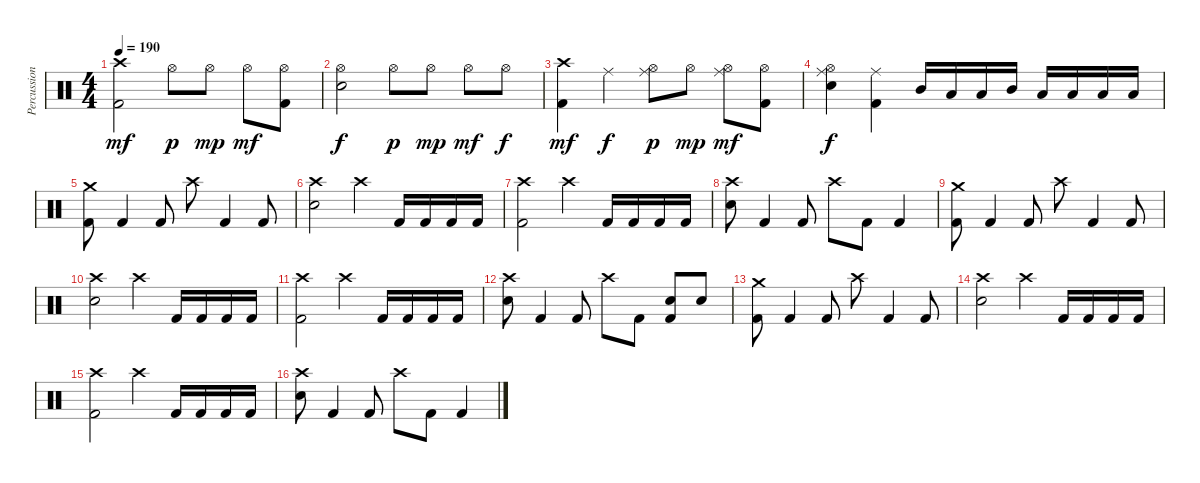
\track ("Percussions" "Percussion") {instrument percussion}
\staff {score}
\articulation defaults
\ts (4 4)
\tempo 190
\clef neutral
\ks c
("Crash high (hit)" "Kick (hit) 2").2{dy mf} "Hi-Hat (open)".8{dy p} "Hi-Hat (open)".8{dy mp} "Hi-Hat (open)".8{dy mf} ("Hi-Hat (open)" "Kick (hit) 2").8 |
("Hi-Hat (open)" "Electric Snare (hit)").2{dy f} "Hi-Hat (open)".8{dy p} "Hi-Hat (open)".8{dy mp} "Hi-Hat (open)".8{dy mf} "Hi-Hat (open)".8{dy f} |
("Crash high (hit)" "Kick (hit) 2").4{dy mf} "Ride (middle)".4{dy f} ("Ride (middle)" "Hi-Hat (open)").8{dy p} "Hi-Hat (open)".8{dy mp} ("Ride (middle)" "Hi-Hat (open)").8{dy mf} ("Hi-Hat (open)" "Kick (hit) 2").8 |
("Ride (middle)" "Hi-Hat (open)" "Electric Snare (hit)").4{dy f} ("Ride (middle)" "Kick (hit) 2").4 "Mid Tom (hit)".16 "Low Tom (hit)".16 "Low Floor Tom (hit)".16 "Mid Tom (hit)".16 "Low Tom (hit)".16 "Low Floor Tom (hit)".16 "Low Tom (hit)".16 "Low Floor Tom (hit)".16 |
("Crash medium (hit)" "Kick (hit) 2").8 "Kick (hit) 2".4 "Kick (hit) 2".8 "Crash high (hit)".8 "Kick (hit) 2".4 "Kick (hit) 2".8 |
("Crash high (hit)" "Electric Snare (hit)").2 "Crash high (hit)".4 "Kick (hit) 2".16 "Kick (hit) 2".16 "Kick (hit) 2".16 "Kick (hit) 2".16 |
("Crash high (hit)" "Kick (hit) 2").2 "Crash high (hit)".4 "Kick (hit) 2".16 "Kick (hit) 2".16 "Kick (hit) 2".16 "Kick (hit) 2".16 |
("Crash high (hit)" "Electric Snare (hit)").8 "Kick (hit) 2".4 "Kick (hit) 2".8 "Crash high (hit)".8 "Kick (hit) 2".8 "Kick (hit) 2".4 |
("Crash medium (hit)" "Kick (hit) 2").8 "Kick (hit) 2".4 "Kick (hit) 2".8 "Crash high (hit)".8 "Kick (hit) 2".4 "Kick (hit) 2".8 |
("Crash high (hit)" "Electric Snare (hit)").2 "Crash high (hit)".4 "Kick (hit) 2".16 "Kick (hit) 2".16 "Kick (hit) 2".16 "Kick (hit) 2".16 |
("Crash high (hit)" "Kick (hit) 2").2 "Crash high (hit)".4 "Kick (hit) 2".16 "Kick (hit) 2".16 "Kick (hit) 2".16 "Kick (hit) 2".16 |
("Crash high (hit)" "Electric Snare (hit)").8 "Kick (hit) 2".4 "Kick (hit) 2".8 "Crash high (hit)".8 "Kick (hit) 2".8 ("Electric Snare (hit)" "Kick (hit) 2").8 "Electric Snare (hit)".8 |
("Crash medium (hit)" "Kick (hit) 2").8 "Kick (hit) 2".4 "Kick (hit) 2".8 "Crash high (hit)".8 "Kick (hit) 2".4 "Kick (hit) 2".8 |
("Crash high (hit)" "Electric Snare (hit)").2 "Crash high (hit)".4 "Kick (hit) 2".16 "Kick (hit) 2".16 "Kick (hit) 2".16 "Kick (hit) 2".16 |
("Crash high (hit)" "Kick (hit) 2").2 "Crash high (hit)".4 "Kick (hit) 2".16 "Kick (hit) 2".16 "Kick (hit) 2".16 "Kick (hit) 2".16 |
("Crash high (hit)" "Electric Snare (hit)").8 "Kick (hit) 2".4 "Kick (hit) 2".8 "Crash high (hit)".8 "Kick (hit) 2".8 "Kick (hit) 2".4
